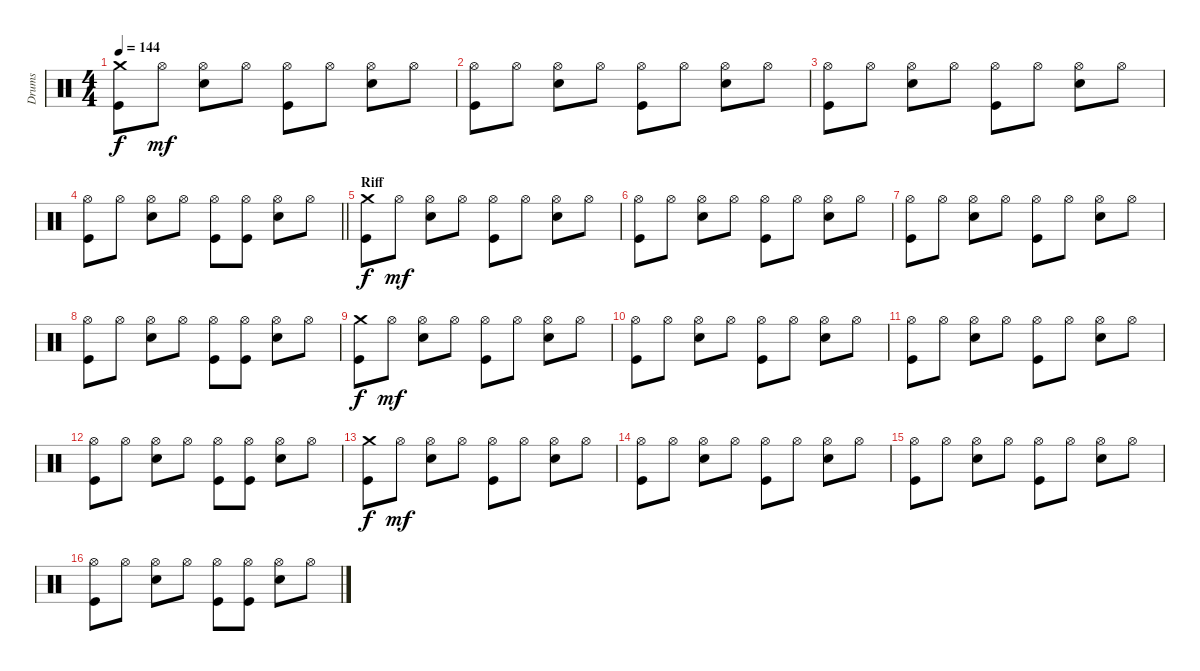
\track ("Drums" "Drums") {instrument percussion}
\staff {score}
\articulation defaults
\ts (4 4)
\tempo 144
\clef neutral
\ks c
("Crash medium (hit)" "Kick (hit)").8{dy f} "Hi-Hat (open)".8{dy mf} ("Hi-Hat (open)" "Snare (hit) 2").8 "Hi-Hat (open)".8 ("Hi-Hat (open)" "Kick (hit)").8 "Hi-Hat (open)".8 ("Hi-Hat (open)" "Snare (hit) 2").8 "Hi-Hat (open)".8 |
("Hi-Hat (open)" "Kick (hit)").8 "Hi-Hat (open)".8 ("Hi-Hat (open)" "Snare (hit) 2").8 "Hi-Hat (open)".8 ("Hi-Hat (open)" "Kick (hit)").8 "Hi-Hat (open)".8 ("Hi-Hat (open)" "Snare (hit) 2").8 "Hi-Hat (open)".8 |
("Hi-Hat (open)" "Kick (hit)").8 "Hi-Hat (open)".8 ("Hi-Hat (open)" "Snare (hit) 2").8 "Hi-Hat (open)".8 ("Hi-Hat (open)" "Kick (hit)").8 "Hi-Hat (open)".8 ("Hi-Hat (open)" "Snare (hit) 2").8 "Hi-Hat (open)".8 |
\barLineRight lightlight
("Hi-Hat (open)" "Kick (hit)").8 "Hi-Hat (open)".8 ("Hi-Hat (open)" "Snare (hit) 2").8 "Hi-Hat (open)".8 ("Hi-Hat (open)" "Kick (hit)").8 ("Hi-Hat (open)" "Kick (hit)").8 ("Hi-Hat (open)" "Snare (hit) 2").8 "Hi-Hat (open)".8 |
\section ("" "Riff")
("Crash medium (hit)" "Kick (hit)").8{dy f} "Hi-Hat (open)".8{dy mf} ("Hi-Hat (open)" "Snare (hit) 2").8 "Hi-Hat (open)".8 ("Hi-Hat (open)" "Kick (hit)").8 "Hi-Hat (open)".8 ("Hi-Hat (open)" "Snare (hit) 2").8 "Hi-Hat (open)".8 |
("Hi-Hat (open)" "Kick (hit)").8 "Hi-Hat (open)".8 ("Hi-Hat (open)" "Snare (hit) 2").8 "Hi-Hat (open)".8 ("Hi-Hat (open)" "Kick (hit)").8 "Hi-Hat (open)".8 ("Hi-Hat (open)" "Snare (hit) 2").8 "Hi-Hat (open)".8 |
("Hi-Hat (open)" "Kick (hit)").8 "Hi-Hat (open)".8 ("Hi-Hat (open)" "Snare (hit) 2").8 "Hi-Hat (open)".8 ("Hi-Hat (open)" "Kick (hit)").8 "Hi-Hat (open)".8 ("Hi-Hat (open)" "Snare (hit) 2").8 "Hi-Hat (open)".8 |
("Hi-Hat (open)" "Kick (hit)").8 "Hi-Hat (open)".8 ("Hi-Hat (open)" "Snare (hit) 2").8 "Hi-Hat (open)".8 ("Hi-Hat (open)" "Kick (hit)").8 ("Hi-Hat (open)" "Kick (hit)").8 ("Hi-Hat (open)" "Snare (hit) 2").8 "Hi-Hat (open)".8 |
("Crash medium (hit)" "Kick (hit)").8{dy f} "Hi-Hat (open)".8{dy mf} ("Hi-Hat (open)" "Snare (hit) 2").8 "Hi-Hat (open)".8 ("Hi-Hat (open)" "Kick (hit)").8 "Hi-Hat (open)".8 ("Hi-Hat (open)" "Snare (hit) 2").8 "Hi-Hat (open)".8 |
("Hi-Hat (open)" "Kick (hit)").8 "Hi-Hat (open)".8 ("Hi-Hat (open)" "Snare (hit) 2").8 "Hi-Hat (open)".8 ("Hi-Hat (open)" "Kick (hit)").8 "Hi-Hat (open)".8 ("Hi-Hat (open)" "Snare (hit) 2").8 "Hi-Hat (open)".8 |
("Hi-Hat (open)" "Kick (hit)").8 "Hi-Hat (open)".8 ("Hi-Hat (open)" "Snare (hit) 2").8 "Hi-Hat (open)".8 ("Hi-Hat (open)" "Kick (hit)").8 "Hi-Hat (open)".8 ("Hi-Hat (open)" "Snare (hit) 2").8 "Hi-Hat (open)".8 |
("Hi-Hat (open)" "Kick (hit)").8 "Hi-Hat (open)".8 ("Hi-Hat (open)" "Snare (hit) 2").8 "Hi-Hat (open)".8 ("Hi-Hat (open)" "Kick (hit)").8 ("Hi-Hat (open)" "Kick (hit)").8 ("Hi-Hat (open)" "Snare (hit) 2").8 "Hi-Hat (open)".8 |
("Crash medium (hit)" "Kick (hit)").8{dy f} "Hi-Hat (open)".8{dy mf} ("Hi-Hat (open)" "Snare (hit) 2").8 "Hi-Hat (open)".8 ("Hi-Hat (open)" "Kick (hit)").8 "Hi-Hat (open)".8 ("Hi-Hat (open)" "Snare (hit) 2").8 "Hi-Hat (open)".8 |
("Hi-Hat (open)" "Kick (hit)").8 "Hi-Hat (open)".8 ("Hi-Hat (open)" "Snare (hit) 2").8 "Hi-Hat (open)".8 ("Hi-Hat (open)" "Kick (hit)").8 "Hi-Hat (open)".8 ("Hi-Hat (open)" "Snare (hit) 2").8 "Hi-Hat (open)".8 |
("Hi-Hat (open)" "Kick (hit)").8 "Hi-Hat (open)".8 ("Hi-Hat (open)" "Snare (hit) 2").8 "Hi-Hat (open)".8 ("Hi-Hat (open)" "Kick (hit)").8 "Hi-Hat (open)".8 ("Hi-Hat (open)" "Snare (hit) 2").8 "Hi-Hat (open)".8 |
("Hi-Hat (open)" "Kick (hit)").8 "Hi-Hat (open)".8 ("Hi-Hat (open)" "Snare (hit) 2").8 "Hi-Hat (open)".8 ("Hi-Hat (open)" "Kick (hit)").8 ("Hi-Hat (open)" "Kick (hit)").8 ("Hi-Hat (open)" "Snare (hit) 2").8 "Hi-Hat (open)".8
